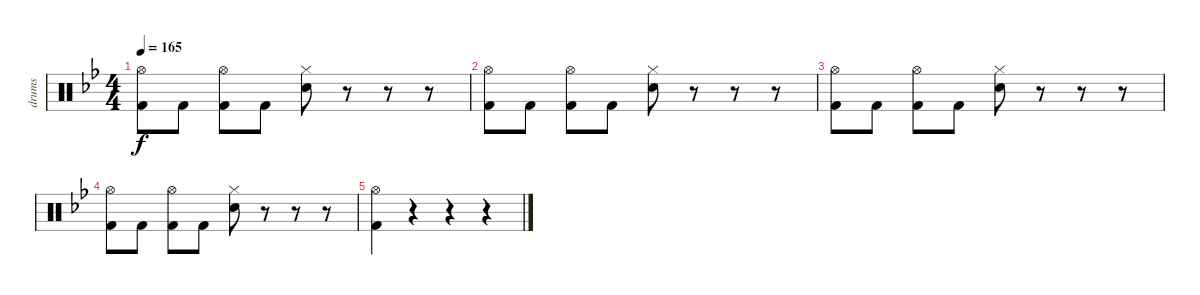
\track ("drums" "drums") {instrument percussion}
\staff {score}
\articulation defaults
\ts (4 4)
\tempo 165
\clef neutral
\ks bb
("Hi-Hat (open)" "Kick (hit) 2").8{dy f} "Kick (hit) 2".8 ("Hi-Hat (open)" "Kick (hit) 2").8 "Kick (hit) 2".8 ("Hi-Hat (closed)" "Snare (hit) 2").8 r.8 r.8 r.8 |
("Hi-Hat (open)" "Kick (hit) 2").8 "Kick (hit) 2".8 ("Hi-Hat (open)" "Kick (hit) 2").8 "Kick (hit) 2".8 ("Hi-Hat (closed)" "Snare (hit) 2").8 r.8 r.8 r.8 |
("Hi-Hat (open)" "Kick (hit) 2").8 "Kick (hit) 2".8 ("Hi-Hat (open)" "Kick (hit) 2").8 "Kick (hit) 2".8 ("Hi-Hat (closed)" "Snare (hit) 2").8 r.8 r.8 r.8 |
("Hi-Hat (open)" "Kick (hit) 2").8 "Kick (hit) 2".8 ("Hi-Hat (open)" "Kick (hit) 2").8 "Kick (hit) 2".8 ("Hi-Hat (closed)" "Snare (hit) 2").8 r.8 r.8 r.8 |
("Hi-Hat (open)" "Kick (hit) 2").4 r.4 r.4 r.4
